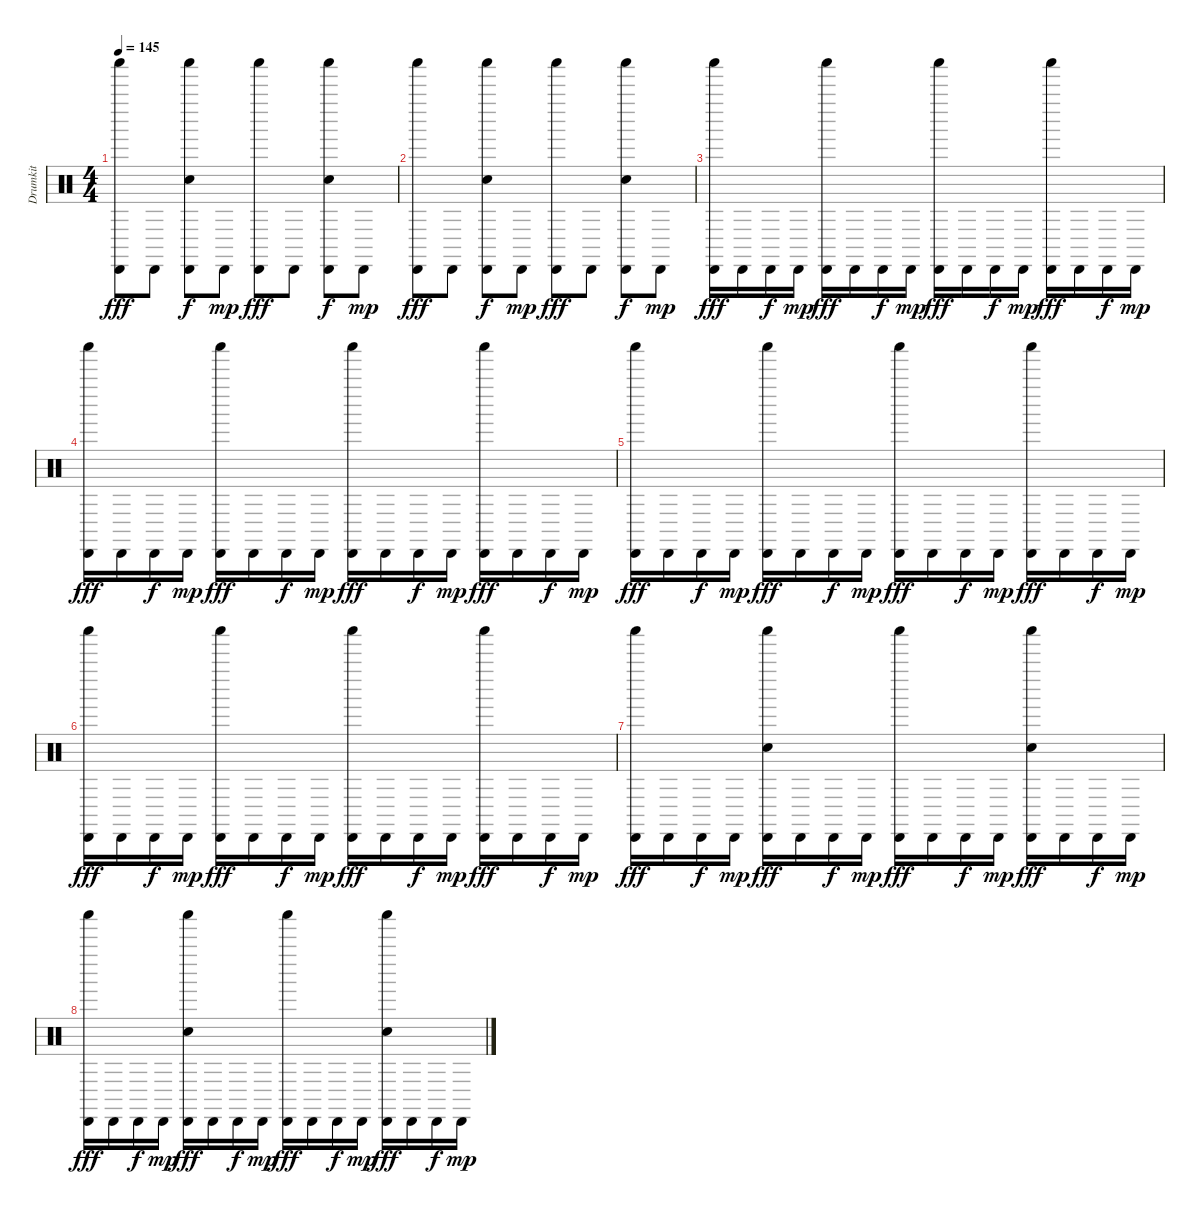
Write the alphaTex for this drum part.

\track ("Drumkit" "Drumkit") {instrument percussion}
\staff {score}
\articulation defaults
\ts (4 4)
\tempo 145
\clef neutral
\ks c
("Shaker (hit)" "Cabasa (hit)").8{dy fff} "Cabasa (hit)".8 ("Shaker (hit)" "Snare (hit) 2" "Cabasa (hit)").8{dy f} "Cabasa (hit)".8{dy mp} ("Shaker (hit)" "Cabasa (hit)").8{dy fff} "Cabasa (hit)".8 ("Shaker (hit)" "Snare (hit) 2" "Cabasa (hit)").8{dy f} "Cabasa (hit)".8{dy mp} |
("Shaker (hit)" "Cabasa (hit)").8{dy fff} "Cabasa (hit)".8 ("Shaker (hit)" "Snare (hit) 2" "Cabasa (hit)").8{dy f} "Cabasa (hit)".8{dy mp} ("Shaker (hit)" "Cabasa (hit)").8{dy fff} "Cabasa (hit)".8 ("Shaker (hit)" "Snare (hit) 2" "Cabasa (hit)").8{dy f} "Cabasa (hit)".8{dy mp} |
("Shaker (hit)" "Cabasa (hit)").16{dy fff} "Cabasa (hit)".16 "Cabasa (hit)".16{dy f} "Cabasa (hit)".16{dy mp} ("Shaker (hit)" "Cabasa (hit)").16{dy fff} "Cabasa (hit)".16 "Cabasa (hit)".16{dy f} "Cabasa (hit)".16{dy mp} ("Shaker (hit)" "Cabasa (hit)").16{dy fff} "Cabasa (hit)".16 "Cabasa (hit)".16{dy f} "Cabasa (hit)".16{dy mp} ("Shaker (hit)" "Cabasa (hit)").16{dy fff} "Cabasa (hit)".16 "Cabasa (hit)".16{dy f} "Cabasa (hit)".16{dy mp} |
("Shaker (hit)" "Cabasa (hit)").16{dy fff} "Cabasa (hit)".16 "Cabasa (hit)".16{dy f} "Cabasa (hit)".16{dy mp} ("Shaker (hit)" "Cabasa (hit)").16{dy fff} "Cabasa (hit)".16 "Cabasa (hit)".16{dy f} "Cabasa (hit)".16{dy mp} ("Shaker (hit)" "Cabasa (hit)").16{dy fff} "Cabasa (hit)".16 "Cabasa (hit)".16{dy f} "Cabasa (hit)".16{dy mp} ("Shaker (hit)" "Cabasa (hit)").16{dy fff} "Cabasa (hit)".16 "Cabasa (hit)".16{dy f} "Cabasa (hit)".16{dy mp} |
("Shaker (hit)" "Cabasa (hit)").16{dy fff} "Cabasa (hit)".16 "Cabasa (hit)".16{dy f} "Cabasa (hit)".16{dy mp} ("Shaker (hit)" "Cabasa (hit)").16{dy fff} "Cabasa (hit)".16 "Cabasa (hit)".16{dy f} "Cabasa (hit)".16{dy mp} ("Shaker (hit)" "Cabasa (hit)").16{dy fff} "Cabasa (hit)".16 "Cabasa (hit)".16{dy f} "Cabasa (hit)".16{dy mp} ("Shaker (hit)" "Cabasa (hit)").16{dy fff} "Cabasa (hit)".16 "Cabasa (hit)".16{dy f} "Cabasa (hit)".16{dy mp} |
("Shaker (hit)" "Cabasa (hit)").16{dy fff} "Cabasa (hit)".16 "Cabasa (hit)".16{dy f} "Cabasa (hit)".16{dy mp} ("Shaker (hit)" "Cabasa (hit)").16{dy fff} "Cabasa (hit)".16 "Cabasa (hit)".16{dy f} "Cabasa (hit)".16{dy mp} ("Shaker (hit)" "Cabasa (hit)").16{dy fff} "Cabasa (hit)".16 "Cabasa (hit)".16{dy f} "Cabasa (hit)".16{dy mp} ("Shaker (hit)" "Cabasa (hit)").16{dy fff} "Cabasa (hit)".16 "Cabasa (hit)".16{dy f} "Cabasa (hit)".16{dy mp} |
("Shaker (hit)" "Cabasa (hit)").16{dy fff} "Cabasa (hit)".16 "Cabasa (hit)".16{dy f} "Cabasa (hit)".16{dy mp} ("Shaker (hit)" "Snare (hit) 2" "Cabasa (hit)").16{dy fff} "Cabasa (hit)".16 "Cabasa (hit)".16{dy f} "Cabasa (hit)".16{dy mp} ("Shaker (hit)" "Cabasa (hit)").16{dy fff} "Cabasa (hit)".16 "Cabasa (hit)".16{dy f} "Cabasa (hit)".16{dy mp} ("Shaker (hit)" "Snare (hit) 2" "Cabasa (hit)").16{dy fff} "Cabasa (hit)".16 "Cabasa (hit)".16{dy f} "Cabasa (hit)".16{dy mp} |
("Shaker (hit)" "Cabasa (hit)").16{dy fff} "Cabasa (hit)".16 "Cabasa (hit)".16{dy f} "Cabasa (hit)".16{dy mp} ("Shaker (hit)" "Snare (hit) 2" "Cabasa (hit)").16{dy fff} "Cabasa (hit)".16 "Cabasa (hit)".16{dy f} "Cabasa (hit)".16{dy mp} ("Shaker (hit)" "Cabasa (hit)").16{dy fff} "Cabasa (hit)".16 "Cabasa (hit)".16{dy f} "Cabasa (hit)".16{dy mp} ("Shaker (hit)" "Snare (hit) 2" "Cabasa (hit)").16{dy fff} "Cabasa (hit)".16 "Cabasa (hit)".16{dy f} "Cabasa (hit)".16{dy mp}
